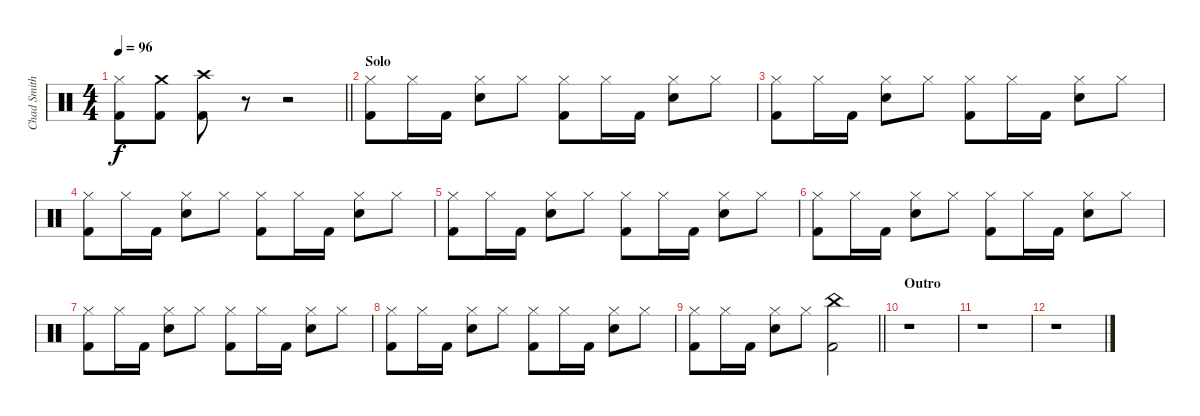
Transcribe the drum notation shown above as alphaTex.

\track ("Chad Smith (Drums)" "Chad Smith") {instrument percussion}
\staff {score}
\articulation defaults
\ts (4 4)
\tempo 96
\clef neutral
\barLineRight lightlight
\ks c
("Hi-Hat (closed)" "Kick (hit) 2").8{dy f} ("Crash medium (hit)" "Kick (hit) 2").8 ("Crash high (hit)" "Kick (hit) 2").8 r.8 r.2 |
\section ("" "Solo")
("Hi-Hat (closed)" "Kick (hit) 2").8 "Hi-Hat (closed)".16 "Kick (hit) 2".16 ("Hi-Hat (closed)" "Electric Snare (hit)").8 "Hi-Hat (closed)".8 ("Hi-Hat (closed)" "Kick (hit) 2").8 "Hi-Hat (closed)".16 "Kick (hit) 2".16 ("Hi-Hat (closed)" "Electric Snare (hit)").8 "Hi-Hat (closed)".8 |
("Hi-Hat (closed)" "Kick (hit) 2").8 "Hi-Hat (closed)".16 "Kick (hit) 2".16 ("Hi-Hat (closed)" "Electric Snare (hit)").8 "Hi-Hat (closed)".8 ("Hi-Hat (closed)" "Kick (hit) 2").8 "Hi-Hat (closed)".16 "Kick (hit) 2".16 ("Hi-Hat (closed)" "Electric Snare (hit)").8 "Hi-Hat (closed)".8 |
("Hi-Hat (closed)" "Kick (hit) 2").8 "Hi-Hat (closed)".16 "Kick (hit) 2".16 ("Hi-Hat (closed)" "Electric Snare (hit)").8 "Hi-Hat (closed)".8 ("Hi-Hat (closed)" "Kick (hit) 2").8 "Hi-Hat (closed)".16 "Kick (hit) 2".16 ("Hi-Hat (closed)" "Electric Snare (hit)").8 "Hi-Hat (closed)".8 |
("Hi-Hat (closed)" "Kick (hit) 2").8 "Hi-Hat (closed)".16 "Kick (hit) 2".16 ("Hi-Hat (closed)" "Electric Snare (hit)").8 "Hi-Hat (closed)".8 ("Hi-Hat (closed)" "Kick (hit) 2").8 "Hi-Hat (closed)".16 "Kick (hit) 2".16 ("Hi-Hat (closed)" "Electric Snare (hit)").8 "Hi-Hat (closed)".8 |
("Hi-Hat (closed)" "Kick (hit) 2").8 "Hi-Hat (closed)".16 "Kick (hit) 2".16 ("Hi-Hat (closed)" "Electric Snare (hit)").8 "Hi-Hat (closed)".8 ("Hi-Hat (closed)" "Kick (hit) 2").8 "Hi-Hat (closed)".16 "Kick (hit) 2".16 ("Hi-Hat (closed)" "Electric Snare (hit)").8 "Hi-Hat (closed)".8 |
("Hi-Hat (closed)" "Kick (hit) 2").8 "Hi-Hat (closed)".16 "Kick (hit) 2".16 ("Hi-Hat (closed)" "Electric Snare (hit)").8 "Hi-Hat (closed)".8 ("Hi-Hat (closed)" "Kick (hit) 2").8 "Hi-Hat (closed)".16 "Kick (hit) 2".16 ("Hi-Hat (closed)" "Electric Snare (hit)").8 "Hi-Hat (closed)".8 |
("Hi-Hat (closed)" "Kick (hit) 2").8 "Hi-Hat (closed)".16 "Kick (hit) 2".16 ("Hi-Hat (closed)" "Electric Snare (hit)").8 "Hi-Hat (closed)".8 ("Hi-Hat (closed)" "Kick (hit) 2").8 "Hi-Hat (closed)".16 "Kick (hit) 2".16 ("Hi-Hat (closed)" "Electric Snare (hit)").8 "Hi-Hat (closed)".8 |
\barLineRight lightlight
("Hi-Hat (closed)" "Kick (hit) 2").8 "Hi-Hat (closed)".16 "Kick (hit) 2".16 ("Hi-Hat (closed)" "Electric Snare (hit)").8 "Hi-Hat (closed)".8 ("China (hit)" "Kick (hit) 2").2 |
\section ("" "Outro")
r.1 |
r.1 |
r.1
